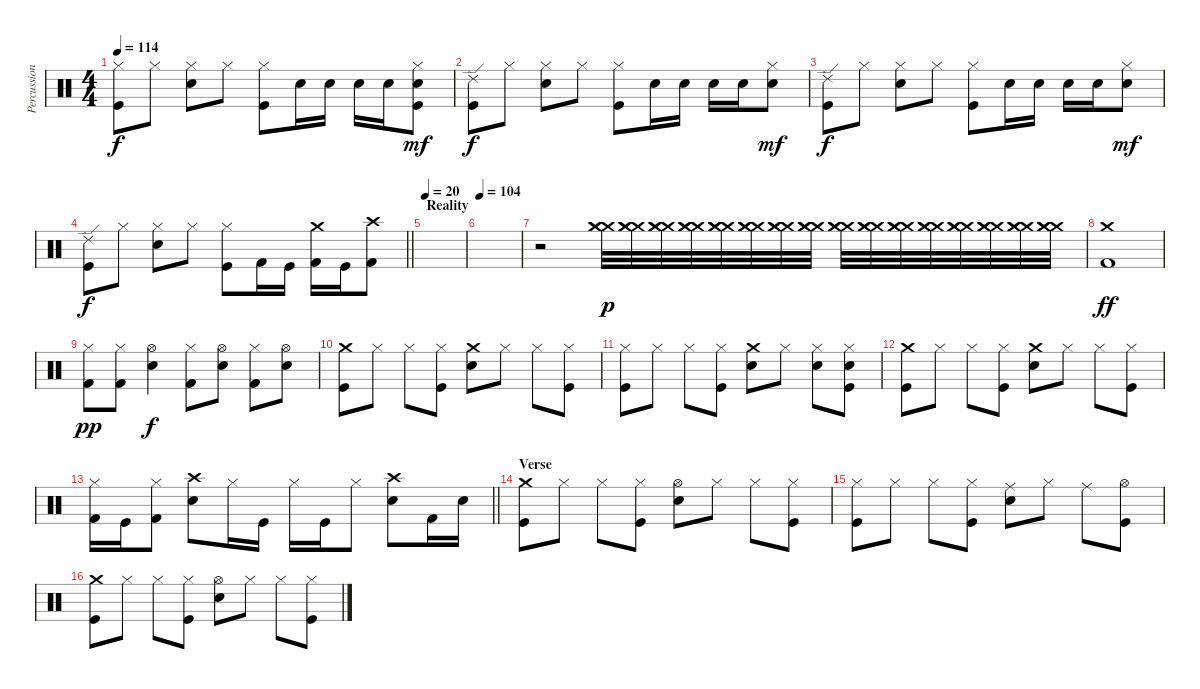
\track ("Percussion" "Percussion") {instrument percussion}
\staff {score}
\articulation defaults
\ts (4 4)
\tempo 114
\clef neutral
\ks c
("Hi-Hat (closed)" "Kick (hit)").8{dy f} "Hi-Hat (closed)".8 ("Hi-Hat (closed)" "Snare (hit) 2").8 "Hi-Hat (closed)".8 ("Hi-Hat (closed)" "Kick (hit)").8 "Snare (hit) 2".16 "Snare (hit) 2".16 "Snare (hit) 2".16 "Snare (hit) 2".16 ("Hi-Hat (closed)" "Snare (hit) 2" "Kick (hit)").8{dy mf} |
("Ride (edge) 2" "Kick (hit)").8{dy f} "Hi-Hat (closed)".8 ("Hi-Hat (closed)" "Snare (hit) 2").8 "Hi-Hat (closed)".8 ("Hi-Hat (closed)" "Kick (hit)").8 "Snare (hit) 2".16 "Snare (hit) 2".16 "Snare (hit) 2".16 "Snare (hit) 2".16 ("Hi-Hat (closed)" "Snare (hit) 2").8{dy mf} |
("Ride (edge) 2" "Kick (hit)").8{dy f} "Hi-Hat (closed)".8 ("Hi-Hat (closed)" "Snare (hit) 2").8 "Hi-Hat (closed)".8 ("Hi-Hat (closed)" "Kick (hit)").8 "Snare (hit) 2".16 "Snare (hit) 2".16 "Snare (hit) 2".16 "Snare (hit) 2".16 ("Hi-Hat (closed)" "Snare (hit) 2").8{dy mf} |
\barLineRight lightlight
("Ride (edge) 2" "Kick (hit)").8{dy f} "Hi-Hat (closed)".8 ("Hi-Hat (closed)" "Snare (hit) 2").8 "Hi-Hat (closed)".8 ("Hi-Hat (closed)" "Kick (hit)").8 "Kick (hit) 2".16 "Kick (hit)".16 ("Crash medium (hit)" "Kick (hit) 2").16 "Kick (hit)".16 ("Crash high (hit)" "Kick (hit) 2").8 |
\section ("" "Reality")
\tempo 20
|
\tempo 104
|
r.2{volume 0} ("Crash medium (hit)" "Crash medium (hit)" "Crash medium (hit)").32{dy p volume 13} ("Crash medium (hit)" "Crash medium (hit)" "Crash medium (hit)").32 ("Crash medium (hit)" "Crash medium (hit)" "Crash medium (hit)").32 ("Crash medium (hit)" "Crash medium (hit)" "Crash medium (hit)").32 ("Crash medium (hit)" "Crash medium (hit)" "Crash medium (hit)").32 ("Crash medium (hit)" "Crash medium (hit)" "Crash medium (hit)").32 ("Crash medium (hit)" "Crash medium (hit)" "Crash medium (hit)").32 ("Crash medium (hit)" "Crash medium (hit)" "Crash medium (hit)").32 ("Crash medium (hit)" "Crash medium (hit)" "Crash medium (hit)").32 ("Crash medium (hit)" "Crash medium (hit)" "Crash medium (hit)").32 ("Crash medium (hit)" "Crash medium (hit)" "Crash medium (hit)").32 ("Crash medium (hit)" "Crash medium (hit)" "Crash medium (hit)").32 ("Crash medium (hit)" "Crash medium (hit)" "Crash medium (hit)").32 ("Crash medium (hit)" "Crash medium (hit)" "Crash medium (hit)").32 ("Crash medium (hit)" "Crash medium (hit)" "Crash medium (hit)").32 ("Crash medium (hit)" "Crash medium (hit)" "Crash medium (hit)").32 |
("Crash medium (hit)" "Kick (hit) 2").1{dy ff} |
("Hi-Hat (closed)" "Kick (hit) 2").8{dy pp} ("Hi-Hat (closed)" "Kick (hit) 2").8 ("Hi-Hat (open)" "Snare (hit) 2").4{dy f} ("Hi-Hat (closed)" "Kick (hit) 2").8 ("Hi-Hat (open)" "Snare (hit) 2").8 ("Hi-Hat (closed)" "Kick (hit) 2").8 ("Hi-Hat (open)" "Snare (hit) 2").8 |
("Crash medium (hit)" "Kick (hit)").8 "Hi-Hat (closed)".8 "Hi-Hat (closed)".8 ("Hi-Hat (closed)" "Kick (hit)").8 ("Crash medium (hit)" "Snare (hit) 2").8 "Hi-Hat (closed)".8 "Hi-Hat (closed)".8 ("Hi-Hat (closed)" "Kick (hit)").8 |
("Hi-Hat (closed)" "Kick (hit)").8 "Hi-Hat (closed)".8 "Hi-Hat (closed)".8 ("Hi-Hat (closed)" "Kick (hit)").8 ("Crash medium (hit)" "Snare (hit) 2").8 "Hi-Hat (closed)".8 ("Hi-Hat (closed)" "Snare (hit) 2").8 ("Hi-Hat (closed)" "Kick (hit)" "Snare (hit) 2").8 |
("Crash medium (hit)" "Kick (hit)").8 "Hi-Hat (closed)".8 "Hi-Hat (closed)".8 ("Hi-Hat (closed)" "Kick (hit)").8 ("Crash medium (hit)" "Snare (hit) 2").8 "Hi-Hat (closed)".8 "Hi-Hat (closed)".8 ("Hi-Hat (closed)" "Kick (hit)").8 |
\barLineRight lightlight
("Hi-Hat (closed)" "Kick (hit) 2").16 "Kick (hit)".16 ("Hi-Hat (closed)" "Kick (hit) 2").8 ("Crash high (hit)" "Snare (hit) 2").8 "Hi-Hat (closed)".16 "Kick (hit)".16 "Hi-Hat (closed)".16 "Kick (hit)".16 "Hi-Hat (closed)".8 ("Crash high (hit)" "Snare (hit) 2").8 "Kick (hit) 2".16 "Snare (hit) 2".16 |
\section ("" "Verse")
("Crash medium (hit)" "Kick (hit)").8 "Hi-Hat (closed)".8 "Hi-Hat (closed)".8 ("Hi-Hat (closed)" "Kick (hit)").8 ("Hi-Hat (open)" "Snare (hit) 2").8 "Hi-Hat (closed)".8 "Hi-Hat (closed)".8 ("Hi-Hat (closed)" "Kick (hit)").8 |
("Hi-Hat (closed)" "Kick (hit)").8 "Hi-Hat (closed)".8 "Hi-Hat (closed)".8 ("Hi-Hat (closed)" "Kick (hit)").8 ("Ride (middle)" "Snare (hit) 2").8 "Hi-Hat (closed)".8 "Ride (middle)".8 ("Hi-Hat (open)" "Kick (hit)").8 |
("Crash medium (hit)" "Kick (hit)").8 "Hi-Hat (closed)".8 "Hi-Hat (closed)".8 ("Hi-Hat (closed)" "Kick (hit)").8 ("Hi-Hat (open)" "Snare (hit) 2").8 "Hi-Hat (closed)".8 "Hi-Hat (closed)".8 ("Hi-Hat (closed)" "Kick (hit)").8
